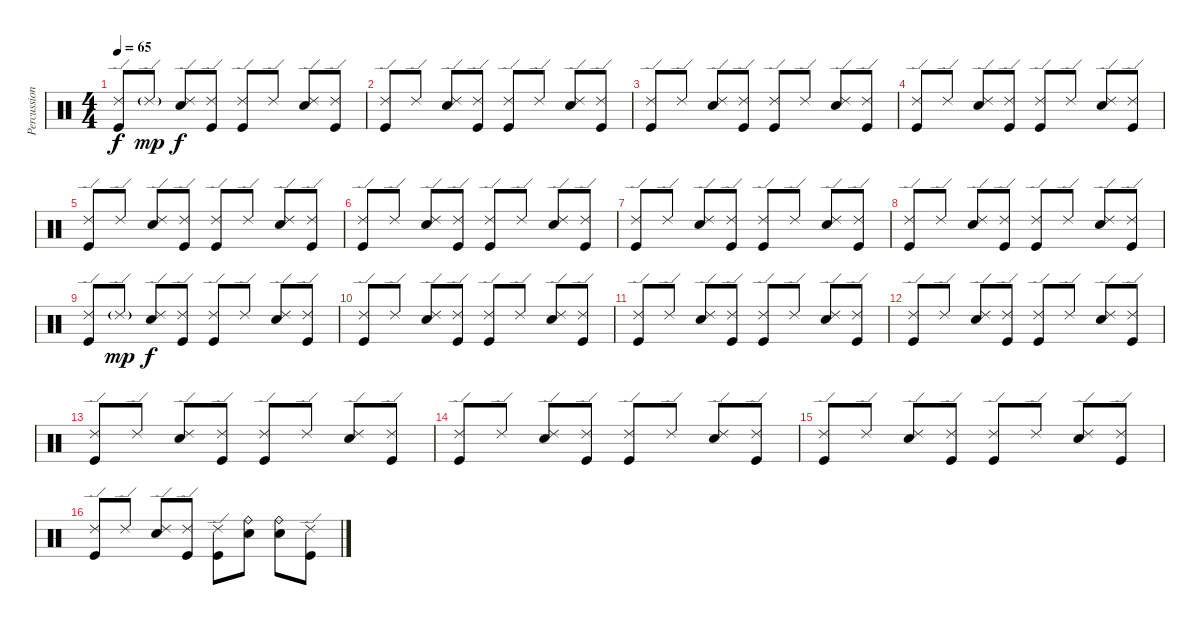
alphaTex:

\track ("Percussion" "Percussion") {instrument percussion}
\staff {score}
\articulation defaults
\ts (4 4)
\tempo 65
\clef neutral
\ks c
("Ride (edge) 2" "Kick (hit)").8{dy f} "Ride (edge) 2"{g}.8{dy mp} ("Ride (edge) 2" "Electric Snare (hit)").8{dy f} ("Ride (edge) 2" "Kick (hit)").8 ("Ride (edge) 2" "Kick (hit)").8 "Ride (edge) 2".8 ("Ride (edge) 2" "Electric Snare (hit)").8 ("Ride (edge) 2" "Kick (hit)").8 |
("Ride (edge) 2" "Kick (hit)").8 "Ride (edge) 2".8 ("Ride (edge) 2" "Electric Snare (hit)").8 ("Ride (edge) 2" "Kick (hit)").8 ("Ride (edge) 2" "Kick (hit)").8 "Ride (edge) 2".8 ("Ride (edge) 2" "Electric Snare (hit)").8 ("Ride (edge) 2" "Kick (hit)").8 |
("Ride (edge) 2" "Kick (hit)").8 "Ride (edge) 2".8 ("Ride (edge) 2" "Electric Snare (hit)").8 ("Ride (edge) 2" "Kick (hit)").8 ("Ride (edge) 2" "Kick (hit)").8 "Ride (edge) 2".8 ("Ride (edge) 2" "Electric Snare (hit)").8 ("Ride (edge) 2" "Kick (hit)").8 |
("Ride (edge) 2" "Kick (hit)").8 "Ride (edge) 2".8 ("Ride (edge) 2" "Electric Snare (hit)").8 ("Ride (edge) 2" "Kick (hit)").8 ("Ride (edge) 2" "Kick (hit)").8 "Ride (edge) 2".8 ("Ride (edge) 2" "Electric Snare (hit)").8 ("Ride (edge) 2" "Kick (hit)").8 |
("Ride (edge) 2" "Kick (hit)").8 "Ride (edge) 2".8 ("Ride (edge) 2" "Electric Snare (hit)").8 ("Ride (edge) 2" "Kick (hit)").8 ("Ride (edge) 2" "Kick (hit)").8 "Ride (edge) 2".8 ("Ride (edge) 2" "Electric Snare (hit)").8 ("Ride (edge) 2" "Kick (hit)").8 |
("Ride (edge) 2" "Kick (hit)").8 "Ride (edge) 2".8 ("Ride (edge) 2" "Electric Snare (hit)").8 ("Ride (edge) 2" "Kick (hit)").8 ("Ride (edge) 2" "Kick (hit)").8 "Ride (edge) 2".8 ("Ride (edge) 2" "Electric Snare (hit)").8 ("Ride (edge) 2" "Kick (hit)").8 |
("Ride (edge) 2" "Kick (hit)").8 "Ride (edge) 2".8 ("Ride (edge) 2" "Electric Snare (hit)").8 ("Ride (edge) 2" "Kick (hit)").8 ("Ride (edge) 2" "Kick (hit)").8 "Ride (edge) 2".8 ("Ride (edge) 2" "Electric Snare (hit)").8 ("Ride (edge) 2" "Kick (hit)").8 |
("Ride (edge) 2" "Kick (hit)").8 "Ride (edge) 2".8 ("Ride (edge) 2" "Electric Snare (hit)").8 ("Ride (edge) 2" "Kick (hit)").8 ("Ride (edge) 2" "Kick (hit)").8 "Ride (edge) 2".8 ("Ride (edge) 2" "Electric Snare (hit)").8 ("Ride (edge) 2" "Kick (hit)").8 |
("Ride (edge) 2" "Kick (hit)").8 "Ride (edge) 2"{g}.8{dy mp} ("Ride (edge) 2" "Electric Snare (hit)").8{dy f} ("Ride (edge) 2" "Kick (hit)").8 ("Ride (edge) 2" "Kick (hit)").8 "Ride (edge) 2".8 ("Ride (edge) 2" "Electric Snare (hit)").8 ("Ride (edge) 2" "Kick (hit)").8 |
("Ride (edge) 2" "Kick (hit)").8 "Ride (edge) 2".8 ("Ride (edge) 2" "Electric Snare (hit)").8 ("Ride (edge) 2" "Kick (hit)").8 ("Ride (edge) 2" "Kick (hit)").8 "Ride (edge) 2".8 ("Ride (edge) 2" "Electric Snare (hit)").8 ("Ride (edge) 2" "Kick (hit)").8 |
("Ride (edge) 2" "Kick (hit)").8 "Ride (edge) 2".8 ("Ride (edge) 2" "Electric Snare (hit)").8 ("Ride (edge) 2" "Kick (hit)").8 ("Ride (edge) 2" "Kick (hit)").8 "Ride (edge) 2".8 ("Ride (edge) 2" "Electric Snare (hit)").8 ("Ride (edge) 2" "Kick (hit)").8 |
("Ride (edge) 2" "Kick (hit)").8 "Ride (edge) 2".8 ("Ride (edge) 2" "Electric Snare (hit)").8 ("Ride (edge) 2" "Kick (hit)").8 ("Ride (edge) 2" "Kick (hit)").8 "Ride (edge) 2".8 ("Ride (edge) 2" "Electric Snare (hit)").8 ("Ride (edge) 2" "Kick (hit)").8 |
("Ride (edge) 2" "Kick (hit)").8 "Ride (edge) 2".8 ("Ride (edge) 2" "Electric Snare (hit)").8 ("Ride (edge) 2" "Kick (hit)").8 ("Ride (edge) 2" "Kick (hit)").8 "Ride (edge) 2".8 ("Ride (edge) 2" "Electric Snare (hit)").8 ("Ride (edge) 2" "Kick (hit)").8 |
("Ride (edge) 2" "Kick (hit)").8 "Ride (edge) 2".8 ("Ride (edge) 2" "Electric Snare (hit)").8 ("Ride (edge) 2" "Kick (hit)").8 ("Ride (edge) 2" "Kick (hit)").8 "Ride (edge) 2".8 ("Ride (edge) 2" "Electric Snare (hit)").8 ("Ride (edge) 2" "Kick (hit)").8 |
("Ride (edge) 2" "Kick (hit)").8 "Ride (edge) 2".8 ("Ride (edge) 2" "Electric Snare (hit)").8 ("Ride (edge) 2" "Kick (hit)").8 ("Ride (edge) 2" "Kick (hit)").8 "Ride (edge) 2".8 ("Ride (edge) 2" "Electric Snare (hit)").8 ("Ride (edge) 2" "Kick (hit)").8 |
("Ride (edge) 2" "Kick (hit)").8 "Ride (edge) 2".8 ("Ride (edge) 2" "Electric Snare (hit)").8 ("Ride (edge) 2" "Kick (hit)").8 ("Ride (edge) 2" "Kick (hit)").8 ("Ride (bell)" "Electric Snare (hit)").8 ("Ride (bell)" "Electric Snare (hit)").8 ("Ride (edge) 2" "Kick (hit)").8
